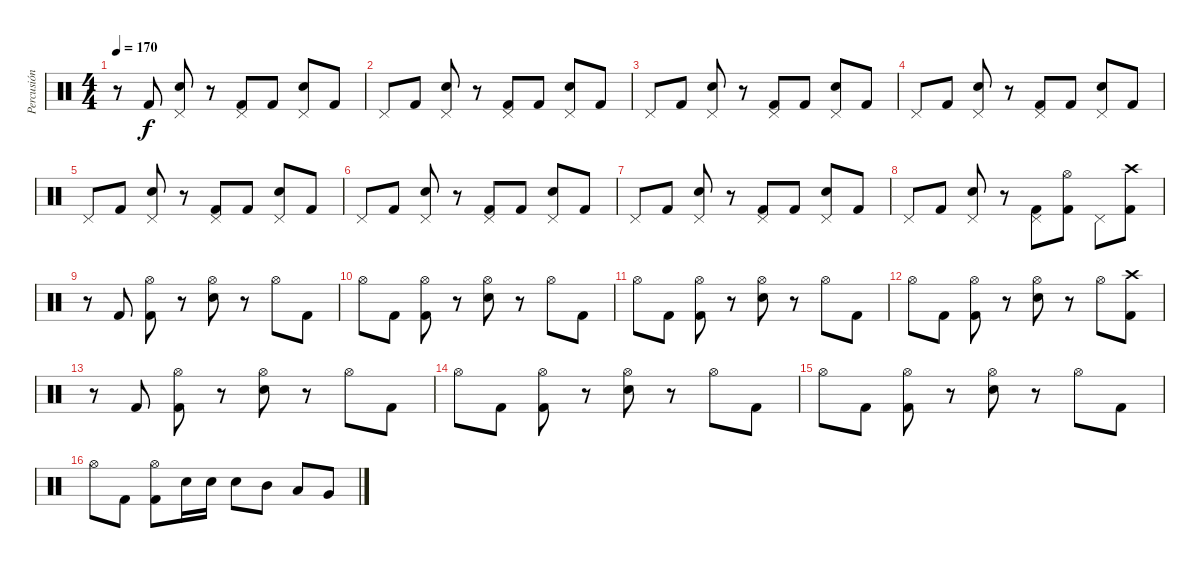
\track ("Percusión" "Percusión") {instrument percussion}
\staff {score}
\articulation defaults
\ts (4 4)
\tempo 170
\clef neutral
\ks c
r.8{dy f} "Kick (hit) 2".8 ("Snare (hit) 2" "Pedal Hi-Hat (hit)").8 r.8 ("Kick (hit) 2" "Pedal Hi-Hat (hit)").8 "Kick (hit) 2".8 ("Snare (hit) 2" "Pedal Hi-Hat (hit)").8 "Kick (hit) 2".8 |
"Pedal Hi-Hat (hit)".8 "Kick (hit) 2".8 ("Snare (hit) 2" "Pedal Hi-Hat (hit)").8 r.8 ("Kick (hit) 2" "Pedal Hi-Hat (hit)").8 "Kick (hit) 2".8 ("Snare (hit) 2" "Pedal Hi-Hat (hit)").8 "Kick (hit) 2".8 |
"Pedal Hi-Hat (hit)".8 "Kick (hit) 2".8 ("Snare (hit) 2" "Pedal Hi-Hat (hit)").8 r.8 ("Kick (hit) 2" "Pedal Hi-Hat (hit)").8 "Kick (hit) 2".8 ("Snare (hit) 2" "Pedal Hi-Hat (hit)").8 "Kick (hit) 2".8 |
"Pedal Hi-Hat (hit)".8 "Kick (hit) 2".8 ("Snare (hit) 2" "Pedal Hi-Hat (hit)").8 r.8 ("Kick (hit) 2" "Pedal Hi-Hat (hit)").8 "Kick (hit) 2".8 ("Snare (hit) 2" "Pedal Hi-Hat (hit)").8 "Kick (hit) 2".8 |
"Pedal Hi-Hat (hit)".8 "Kick (hit) 2".8 ("Snare (hit) 2" "Pedal Hi-Hat (hit)").8 r.8 ("Kick (hit) 2" "Pedal Hi-Hat (hit)").8 "Kick (hit) 2".8 ("Snare (hit) 2" "Pedal Hi-Hat (hit)").8 "Kick (hit) 2".8 |
"Pedal Hi-Hat (hit)".8 "Kick (hit) 2".8 ("Snare (hit) 2" "Pedal Hi-Hat (hit)").8 r.8 ("Kick (hit) 2" "Pedal Hi-Hat (hit)").8 "Kick (hit) 2".8 ("Snare (hit) 2" "Pedal Hi-Hat (hit)").8 "Kick (hit) 2".8 |
"Pedal Hi-Hat (hit)".8 "Kick (hit) 2".8 ("Snare (hit) 2" "Pedal Hi-Hat (hit)").8 r.8 ("Kick (hit) 2" "Pedal Hi-Hat (hit)").8 "Kick (hit) 2".8 ("Snare (hit) 2" "Pedal Hi-Hat (hit)").8 "Kick (hit) 2".8 |
"Pedal Hi-Hat (hit)".8 "Kick (hit) 2".8 ("Snare (hit) 2" "Pedal Hi-Hat (hit)").8 r.8 ("Kick (hit) 2" "Pedal Hi-Hat (hit)").8 ("Kick (hit) 2" "Hi-Hat (open)").8 "Pedal Hi-Hat (hit)".8 ("Kick (hit) 2" "Crash high (hit)").8 |
r.8 "Kick (hit) 2".8 ("Kick (hit) 2" "Hi-Hat (open)").8 r.8 ("Snare (hit) 2" "Hi-Hat (open)").8 r.8 "Hi-Hat (open)".8 "Kick (hit) 2".8 |
"Hi-Hat (open)".8 "Kick (hit) 2".8 ("Kick (hit) 2" "Hi-Hat (open)").8 r.8 ("Snare (hit) 2" "Hi-Hat (open)").8 r.8 "Hi-Hat (open)".8 "Kick (hit) 2".8 |
"Hi-Hat (open)".8 "Kick (hit) 2".8 ("Kick (hit) 2" "Hi-Hat (open)").8 r.8 ("Snare (hit) 2" "Hi-Hat (open)").8 r.8 "Hi-Hat (open)".8 "Kick (hit) 2".8 |
"Hi-Hat (open)".8 "Kick (hit) 2".8 ("Kick (hit) 2" "Hi-Hat (open)").8 r.8 ("Snare (hit) 2" "Hi-Hat (open)").8 r.8 "Hi-Hat (open)".8 ("Kick (hit) 2" "Crash high (hit)").8 |
r.8 "Kick (hit) 2".8 ("Kick (hit) 2" "Hi-Hat (open)").8 r.8 ("Snare (hit) 2" "Hi-Hat (open)").8 r.8 "Hi-Hat (open)".8 "Kick (hit) 2".8 |
"Hi-Hat (open)".8 "Kick (hit) 2".8 ("Kick (hit) 2" "Hi-Hat (open)").8 r.8 ("Snare (hit) 2" "Hi-Hat (open)").8 r.8 "Hi-Hat (open)".8 "Kick (hit) 2".8 |
"Hi-Hat (open)".8 "Kick (hit) 2".8 ("Kick (hit) 2" "Hi-Hat (open)").8 r.8 ("Snare (hit) 2" "Hi-Hat (open)").8 r.8 "Hi-Hat (open)".8 "Kick (hit) 2".8 |
"Hi-Hat (open)".8 "Kick (hit) 2".8 ("Kick (hit) 2" "Hi-Hat (open)").8 "Snare (hit) 2".16 "Snare (hit) 2".16 "Snare (hit) 2".8 "Mid Tom (hit)".8 "Low Tom (hit)".8 "Very Low Tom (hit)".8
